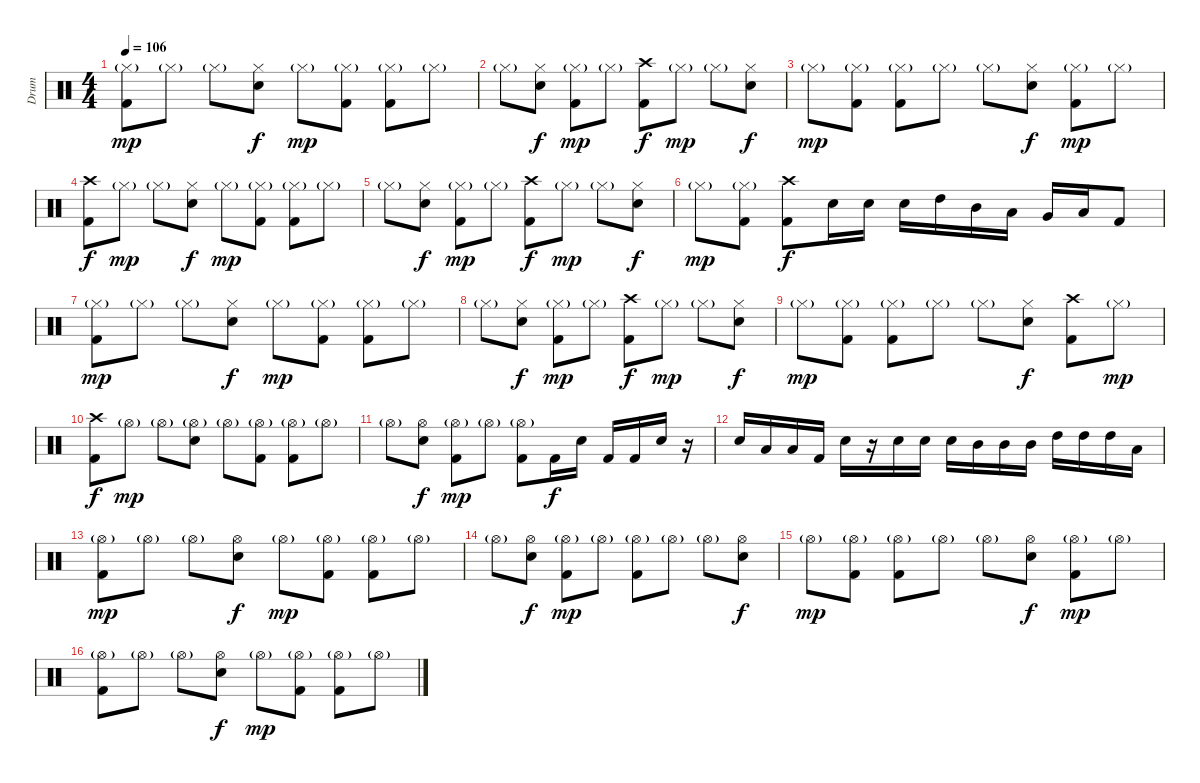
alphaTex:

\track ("Drum" "Drum") {instrument percussion}
\staff {score}
\articulation defaults
\ts (4 4)
\tempo 106
\clef neutral
\ks c
("Hi-Hat (closed)"{g} "Kick (hit) 2").8{dy mp} "Hi-Hat (closed)"{g}.8 "Hi-Hat (closed)"{g}.8 ("Hi-Hat (closed)" "Electric Snare (hit)").8{dy f} "Hi-Hat (closed)"{g}.8{dy mp} ("Hi-Hat (closed)"{g} "Kick (hit) 2").8 ("Hi-Hat (closed)"{g} "Kick (hit) 2").8 "Hi-Hat (closed)"{g}.8 |
"Hi-Hat (closed)"{g}.8 ("Hi-Hat (closed)" "Electric Snare (hit)").8{dy f} ("Hi-Hat (closed)"{g} "Kick (hit) 2").8{dy mp} "Hi-Hat (closed)"{g}.8 ("Crash high (hit)" "Kick (hit) 2").8{dy f} "Hi-Hat (closed)"{g}.8{dy mp} "Hi-Hat (closed)"{g}.8 ("Hi-Hat (closed)" "Electric Snare (hit)").8{dy f} |
"Hi-Hat (closed)"{g}.8{dy mp} ("Hi-Hat (closed)"{g} "Kick (hit) 2").8 ("Hi-Hat (closed)"{g} "Kick (hit) 2").8 "Hi-Hat (closed)"{g}.8 "Hi-Hat (closed)"{g}.8 ("Hi-Hat (closed)" "Electric Snare (hit)").8{dy f} ("Hi-Hat (closed)"{g} "Kick (hit) 2").8{dy mp} "Hi-Hat (closed)"{g}.8 |
("Crash high (hit)" "Kick (hit) 2").8{dy f} "Hi-Hat (closed)"{g}.8{dy mp} "Hi-Hat (closed)"{g}.8 ("Hi-Hat (closed)" "Electric Snare (hit)").8{dy f} "Hi-Hat (closed)"{g}.8{dy mp} ("Hi-Hat (closed)"{g} "Kick (hit) 2").8 ("Hi-Hat (closed)"{g} "Kick (hit) 2").8 "Hi-Hat (closed)"{g}.8 |
"Hi-Hat (closed)"{g}.8 ("Hi-Hat (closed)" "Electric Snare (hit)").8{dy f} ("Hi-Hat (closed)"{g} "Kick (hit) 2").8{dy mp} "Hi-Hat (closed)"{g}.8 ("Crash high (hit)" "Kick (hit) 2").8{dy f} "Hi-Hat (closed)"{g}.8{dy mp} "Hi-Hat (closed)"{g}.8 ("Hi-Hat (closed)" "Electric Snare (hit)").8{dy f} |
"Hi-Hat (closed)"{g}.8{dy mp} ("Hi-Hat (closed)"{g} "Kick (hit) 2").8 ("Crash high (hit)" "Kick (hit) 2").8{dy f} "Electric Snare (hit)".16 "Electric Snare (hit)".16 "Electric Snare (hit)".16 "High Tom (hit)".16 "Mid Tom (hit)".16 "Low Tom (hit)".16 "Very Low Tom (hit)".16 "Low Floor Tom (hit)".16 "Kick (hit) 2".8 |
("Hi-Hat (closed)"{g} "Kick (hit) 2").8{dy mp} "Hi-Hat (closed)"{g}.8 "Hi-Hat (closed)"{g}.8 ("Hi-Hat (closed)" "Electric Snare (hit)").8{dy f} "Hi-Hat (closed)"{g}.8{dy mp} ("Hi-Hat (closed)"{g} "Kick (hit) 2").8 ("Hi-Hat (closed)"{g} "Kick (hit) 2").8 "Hi-Hat (closed)"{g}.8 |
"Hi-Hat (closed)"{g}.8 ("Hi-Hat (closed)" "Electric Snare (hit)").8{dy f} ("Hi-Hat (closed)"{g} "Kick (hit) 2").8{dy mp} "Hi-Hat (closed)"{g}.8 ("Crash high (hit)" "Kick (hit) 2").8{dy f} "Hi-Hat (closed)"{g}.8{dy mp} "Hi-Hat (closed)"{g}.8 ("Hi-Hat (closed)" "Electric Snare (hit)").8{dy f} |
"Hi-Hat (closed)"{g}.8{dy mp} ("Hi-Hat (closed)"{g} "Kick (hit) 2").8 ("Hi-Hat (closed)"{g} "Kick (hit) 2").8 "Hi-Hat (closed)"{g}.8 "Hi-Hat (closed)"{g}.8 ("Hi-Hat (closed)" "Electric Snare (hit)").8{dy f} ("Crash high (hit)" "Kick (hit) 2").8 "Hi-Hat (closed)"{g}.8{dy mp} |
("Crash high (hit)" "Kick (hit) 2").8{dy f} "Hi-Hat (open)"{g}.8{dy mp} "Hi-Hat (open)"{g}.8 ("Hi-Hat (open)"{g} "Electric Snare (hit)").8 "Hi-Hat (open)"{g}.8 ("Hi-Hat (open)"{g} "Kick (hit) 2").8 ("Hi-Hat (open)"{g} "Kick (hit) 2").8 "Hi-Hat (open)"{g}.8 |
"Hi-Hat (open)"{g}.8 ("Hi-Hat (open)" "Electric Snare (hit)").8{dy f} ("Hi-Hat (open)"{g} "Kick (hit) 2").8{dy mp} "Hi-Hat (open)"{g}.8 ("Hi-Hat (open)"{g} "Kick (hit) 2").8 "Kick (hit) 2".16{dy f} "Electric Snare (hit)".16 "Kick (hit) 2".16 "Kick (hit) 2".16 "Electric Snare (hit)".16 r.16 |
"Electric Snare (hit)".16 "Low Tom (hit)".16 "Low Floor Tom (hit)".16 "Kick (hit) 2".16 "Electric Snare (hit)".16 r.16 "Electric Snare (hit)".16 "Electric Snare (hit)".16 "Electric Snare (hit)".16 "Mid Tom (hit)".16 "Mid Tom (hit)".16 "Mid Tom (hit)".16 "High Tom (hit)".16 "High Tom (hit)".16 "High Tom (hit)".16 "Low Tom (hit)".16 |
("Hi-Hat (open)"{g} "Kick (hit) 2").8{dy mp} "Hi-Hat (open)"{g}.8 "Hi-Hat (open)"{g}.8 ("Hi-Hat (open)" "Electric Snare (hit)").8{dy f} "Hi-Hat (open)"{g}.8{dy mp} ("Hi-Hat (open)"{g} "Kick (hit) 2").8 ("Hi-Hat (open)"{g} "Kick (hit) 2").8 "Hi-Hat (open)"{g}.8 |
"Hi-Hat (open)"{g}.8 ("Hi-Hat (open)" "Electric Snare (hit)").8{dy f} ("Hi-Hat (open)"{g} "Kick (hit) 2").8{dy mp} "Hi-Hat (open)"{g}.8 ("Hi-Hat (open)"{g} "Kick (hit) 2").8 "Hi-Hat (open)"{g}.8 "Hi-Hat (open)"{g}.8 ("Hi-Hat (open)" "Electric Snare (hit)").8{dy f} |
"Hi-Hat (open)"{g}.8{dy mp} ("Hi-Hat (open)"{g} "Kick (hit) 2").8 ("Hi-Hat (open)"{g} "Kick (hit) 2").8 "Hi-Hat (open)"{g}.8 "Hi-Hat (open)"{g}.8 ("Hi-Hat (open)" "Electric Snare (hit)").8{dy f} ("Hi-Hat (open)"{g} "Kick (hit) 2").8{dy mp} "Hi-Hat (open)"{g}.8 |
("Hi-Hat (open)"{g} "Kick (hit) 2").8 "Hi-Hat (open)"{g}.8 "Hi-Hat (open)"{g}.8 ("Hi-Hat (open)" "Electric Snare (hit)").8{dy f} "Hi-Hat (open)"{g}.8{dy mp} ("Hi-Hat (open)"{g} "Kick (hit) 2").8 ("Hi-Hat (open)"{g} "Kick (hit) 2").8 "Hi-Hat (open)"{g}.8
